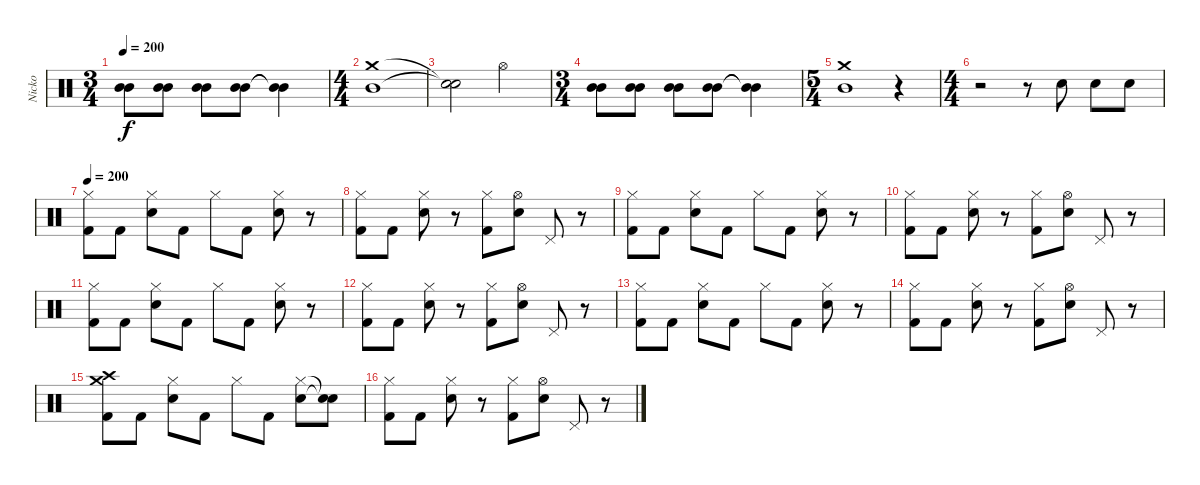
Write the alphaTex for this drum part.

\track ("Nicko" "Nicko") {instrument percussion}
\staff {score}
\articulation defaults
\ts (3 4)
\tempo 200
\clef neutral
\ks c
("Mid Tom (hit)" "Mid Tom (hit)").8{dy f} ("Mid Tom (hit)" "Mid Tom (hit)").8 ("Mid Tom (hit)" "Mid Tom (hit)").8 ("Mid Tom (hit)" "Mid Tom (hit)").8 ("Mid Tom (hit)"{t} "Mid Tom (hit)"{t}).4 |
\ts (4 4)
("Crash medium (hit)" "Mid Tom (hit)").1 |
("Snare (hit)"{t} "Snare (hit)"{t}).2 "Hi-Hat (open)".2 |
\ts (3 4)
("Mid Tom (hit)" "Mid Tom (hit)").8 ("Mid Tom (hit)" "Mid Tom (hit)").8 ("Mid Tom (hit)" "Mid Tom (hit)").8 ("Mid Tom (hit)" "Mid Tom (hit)").8 ("Mid Tom (hit)"{t} "Mid Tom (hit)"{t}).4 |
\ts (5 4)
("Mid Tom (hit)" "Crash medium (hit)").1 r.4 |
\ts (4 4)
r.2 r.8 "Electric Snare (hit)".8 "Electric Snare (hit)".8 "Electric Snare (hit)".8 |
\tempo 200
("Hi-Hat (closed)" "Kick (hit) 2").8 "Kick (hit) 2".8 ("Hi-Hat (closed)" "Electric Snare (hit)").8 "Kick (hit) 2".8 "Hi-Hat (closed)".8 "Kick (hit) 2".8 ("Hi-Hat (closed)" "Electric Snare (hit)").8 r.8 |
("Hi-Hat (closed)" "Kick (hit) 2").8 "Kick (hit) 2".8 ("Hi-Hat (closed)" "Electric Snare (hit)").8 r.8 ("Hi-Hat (closed)" "Kick (hit) 2").8 ("Hi-Hat (open)" "Electric Snare (hit)").8 "Pedal Hi-Hat (hit)".8 r.8 |
("Hi-Hat (closed)" "Kick (hit) 2").8 "Kick (hit) 2".8 ("Hi-Hat (closed)" "Electric Snare (hit)").8 "Kick (hit) 2".8 "Hi-Hat (closed)".8 "Kick (hit) 2".8 ("Hi-Hat (closed)" "Electric Snare (hit)").8 r.8 |
("Hi-Hat (closed)" "Kick (hit) 2").8 "Kick (hit) 2".8 ("Hi-Hat (closed)" "Electric Snare (hit)").8 r.8 ("Hi-Hat (closed)" "Kick (hit) 2").8 ("Hi-Hat (open)" "Electric Snare (hit)").8 "Pedal Hi-Hat (hit)".8 r.8 |
("Hi-Hat (closed)" "Kick (hit) 2").8 "Kick (hit) 2".8 ("Hi-Hat (closed)" "Electric Snare (hit)").8 "Kick (hit) 2".8 "Hi-Hat (closed)".8 "Kick (hit) 2".8 ("Hi-Hat (closed)" "Electric Snare (hit)").8 r.8 |
("Hi-Hat (closed)" "Kick (hit) 2").8 "Kick (hit) 2".8 ("Hi-Hat (closed)" "Electric Snare (hit)").8 r.8 ("Hi-Hat (closed)" "Kick (hit) 2").8 ("Hi-Hat (open)" "Electric Snare (hit)").8 "Pedal Hi-Hat (hit)".8 r.8 |
("Hi-Hat (closed)" "Kick (hit) 2").8 "Kick (hit) 2".8 ("Hi-Hat (closed)" "Electric Snare (hit)").8 "Kick (hit) 2".8 "Hi-Hat (closed)".8 "Kick (hit) 2".8 ("Hi-Hat (closed)" "Electric Snare (hit)").8 r.8 |
("Hi-Hat (closed)" "Kick (hit) 2").8 "Kick (hit) 2".8 ("Hi-Hat (closed)" "Electric Snare (hit)").8 r.8 ("Hi-Hat (closed)" "Kick (hit) 2").8 ("Hi-Hat (open)" "Electric Snare (hit)").8 "Pedal Hi-Hat (hit)".8 r.8 |
("Crash high (hit)" "Crash medium (hit)" "Kick (hit) 2").8 "Kick (hit) 2".8 ("Hi-Hat (closed)" "Electric Snare (hit)").8 "Kick (hit) 2".8 "Hi-Hat (closed)".8 "Kick (hit) 2".8 ("Hi-Hat (closed)" "Electric Snare (hit)").8 ("Snare (hit)"{t} "Snare (hit)"{t}).8 |
("Hi-Hat (closed)" "Kick (hit) 2").8 "Kick (hit) 2".8 ("Hi-Hat (closed)" "Electric Snare (hit)").8 r.8 ("Hi-Hat (closed)" "Kick (hit) 2").8 ("Hi-Hat (open)" "Electric Snare (hit)").8 "Pedal Hi-Hat (hit)".8 r.8
